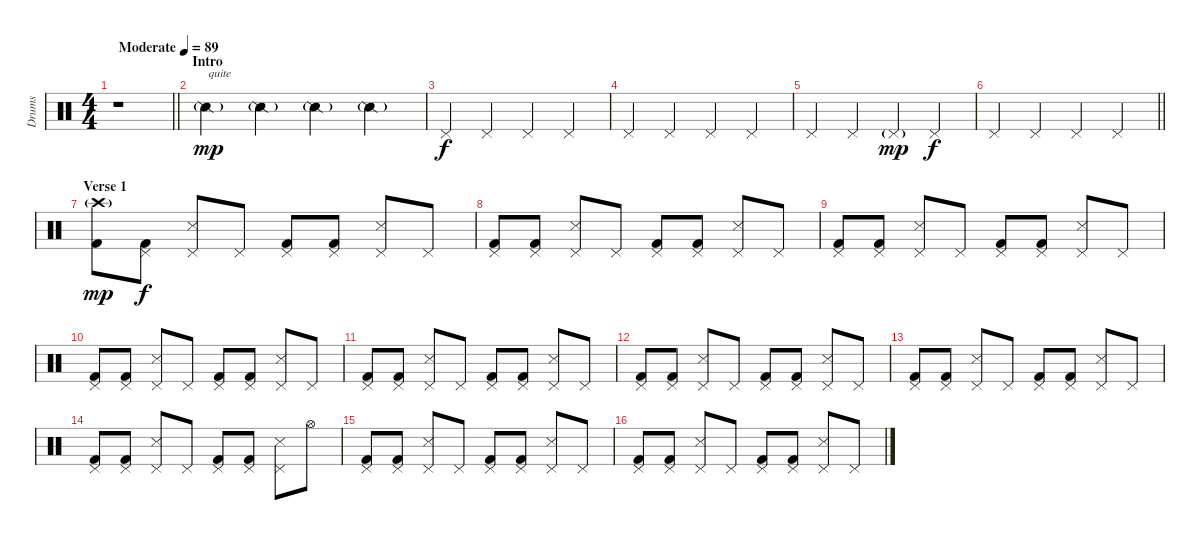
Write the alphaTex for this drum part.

\track ("Drums" "Drums") {instrument percussion}
\staff {score}
\articulation defaults
\ts (4 4)
\tempo (89 "Moderate")
\clef neutral
\barLineRight lightlight
\ks c
r.1{dy mp} |
\section ("" "Intro")
"Snare (side stick) 2"{g}.4{txt "quite" volume 4} "Snare (side stick) 2"{g}.4 "Snare (side stick) 2"{g}.4 "Snare (side stick) 2"{g}.4 |
"Pedal Hi-Hat (hit)".4{dy f} "Pedal Hi-Hat (hit)".4 "Pedal Hi-Hat (hit)".4 "Pedal Hi-Hat (hit)".4 |
"Pedal Hi-Hat (hit)".4 "Pedal Hi-Hat (hit)".4 "Pedal Hi-Hat (hit)".4 "Pedal Hi-Hat (hit)".4 |
"Pedal Hi-Hat (hit)".4 "Pedal Hi-Hat (hit)".4 "Pedal Hi-Hat (hit)"{g}.4{dy mp} "Pedal Hi-Hat (hit)".4{dy f} |
\barLineRight lightlight "Pedal Hi-Hat (hit)".4 "Pedal Hi-Hat (hit)".4 "Pedal Hi-Hat (hit)".4 "Pedal Hi-Hat (hit)".4
|
\section ("" "Verse 1")
("Crash high (hit)"{g} "Kick (hit) 2").8{dy mp} ("Pedal Hi-Hat (hit)" "Kick (hit) 2").8{dy f} ("Pedal Hi-Hat (hit)" "Snare (side stick) 3").8 "Pedal Hi-Hat (hit)".8 ("Pedal Hi-Hat (hit)" "Kick (hit) 2").8 ("Pedal Hi-Hat (hit)" "Kick (hit) 2").8 ("Pedal Hi-Hat (hit)" "Snare (side stick) 3").8 "Pedal Hi-Hat (hit)".8 |
("Pedal Hi-Hat (hit)" "Kick (hit) 2").8 ("Pedal Hi-Hat (hit)" "Kick (hit) 2").8 ("Pedal Hi-Hat (hit)" "Snare (side stick) 3").8 "Pedal Hi-Hat (hit)".8 ("Pedal Hi-Hat (hit)" "Kick (hit) 2").8 ("Pedal Hi-Hat (hit)" "Kick (hit) 2").8 ("Pedal Hi-Hat (hit)" "Snare (side stick) 3").8 "Pedal Hi-Hat (hit)".8 |
("Pedal Hi-Hat (hit)" "Kick (hit) 2").8 ("Pedal Hi-Hat (hit)" "Kick (hit) 2").8 ("Pedal Hi-Hat (hit)" "Snare (side stick) 3").8 "Pedal Hi-Hat (hit)".8 ("Pedal Hi-Hat (hit)" "Kick (hit) 2").8 ("Pedal Hi-Hat (hit)" "Kick (hit) 2").8 ("Pedal Hi-Hat (hit)" "Snare (side stick) 3").8 "Pedal Hi-Hat (hit)".8 |
("Pedal Hi-Hat (hit)" "Kick (hit) 2").8 ("Pedal Hi-Hat (hit)" "Kick (hit) 2").8 ("Pedal Hi-Hat (hit)" "Snare (side stick) 3").8 "Pedal Hi-Hat (hit)".8 ("Pedal Hi-Hat (hit)" "Kick (hit) 2").8 ("Pedal Hi-Hat (hit)" "Kick (hit) 2").8 ("Pedal Hi-Hat (hit)" "Snare (side stick) 3").8 "Pedal Hi-Hat (hit)".8 |
("Pedal Hi-Hat (hit)" "Kick (hit) 2").8 ("Pedal Hi-Hat (hit)" "Kick (hit) 2").8 ("Pedal Hi-Hat (hit)" "Snare (side stick) 3").8 "Pedal Hi-Hat (hit)".8 ("Pedal Hi-Hat (hit)" "Kick (hit) 2").8 ("Pedal Hi-Hat (hit)" "Kick (hit) 2").8 ("Pedal Hi-Hat (hit)" "Snare (side stick) 3").8 "Pedal Hi-Hat (hit)".8 |
("Pedal Hi-Hat (hit)" "Kick (hit) 2").8 ("Pedal Hi-Hat (hit)" "Kick (hit) 2").8 ("Pedal Hi-Hat (hit)" "Snare (side stick) 3").8 "Pedal Hi-Hat (hit)".8 ("Pedal Hi-Hat (hit)" "Kick (hit) 2").8 ("Pedal Hi-Hat (hit)" "Kick (hit) 2").8 ("Pedal Hi-Hat (hit)" "Snare (side stick) 3").8 "Pedal Hi-Hat (hit)".8 |
("Pedal Hi-Hat (hit)" "Kick (hit) 2").8 ("Pedal Hi-Hat (hit)" "Kick (hit) 2").8 ("Pedal Hi-Hat (hit)" "Snare (side stick) 3").8 "Pedal Hi-Hat (hit)".8 ("Pedal Hi-Hat (hit)" "Kick (hit) 2").8 ("Pedal Hi-Hat (hit)" "Kick (hit) 2").8 ("Pedal Hi-Hat (hit)" "Snare (side stick) 3").8 "Pedal Hi-Hat (hit)".8 |
("Pedal Hi-Hat (hit)" "Kick (hit) 2").8 ("Pedal Hi-Hat (hit)" "Kick (hit) 2").8 ("Pedal Hi-Hat (hit)" "Snare (side stick) 3").8 "Pedal Hi-Hat (hit)".8 ("Pedal Hi-Hat (hit)" "Kick (hit) 2").8 ("Pedal Hi-Hat (hit)" "Kick (hit) 2").8 ("Pedal Hi-Hat (hit)" "Snare (side stick) 3").8 "Hi-Hat (open)".8 |
("Pedal Hi-Hat (hit)" "Kick (hit) 2").8 ("Pedal Hi-Hat (hit)" "Kick (hit) 2").8 ("Pedal Hi-Hat (hit)" "Snare (side stick) 3").8 "Pedal Hi-Hat (hit)".8 ("Pedal Hi-Hat (hit)" "Kick (hit) 2").8 ("Pedal Hi-Hat (hit)" "Kick (hit) 2").8 ("Pedal Hi-Hat (hit)" "Snare (side stick) 3").8 "Pedal Hi-Hat (hit)".8 |
("Pedal Hi-Hat (hit)" "Kick (hit) 2").8 ("Pedal Hi-Hat (hit)" "Kick (hit) 2").8 ("Pedal Hi-Hat (hit)" "Snare (side stick) 3").8 "Pedal Hi-Hat (hit)".8 ("Pedal Hi-Hat (hit)" "Kick (hit) 2").8 ("Pedal Hi-Hat (hit)" "Kick (hit) 2").8 ("Pedal Hi-Hat (hit)" "Snare (side stick) 3").8 "Pedal Hi-Hat (hit)".8
